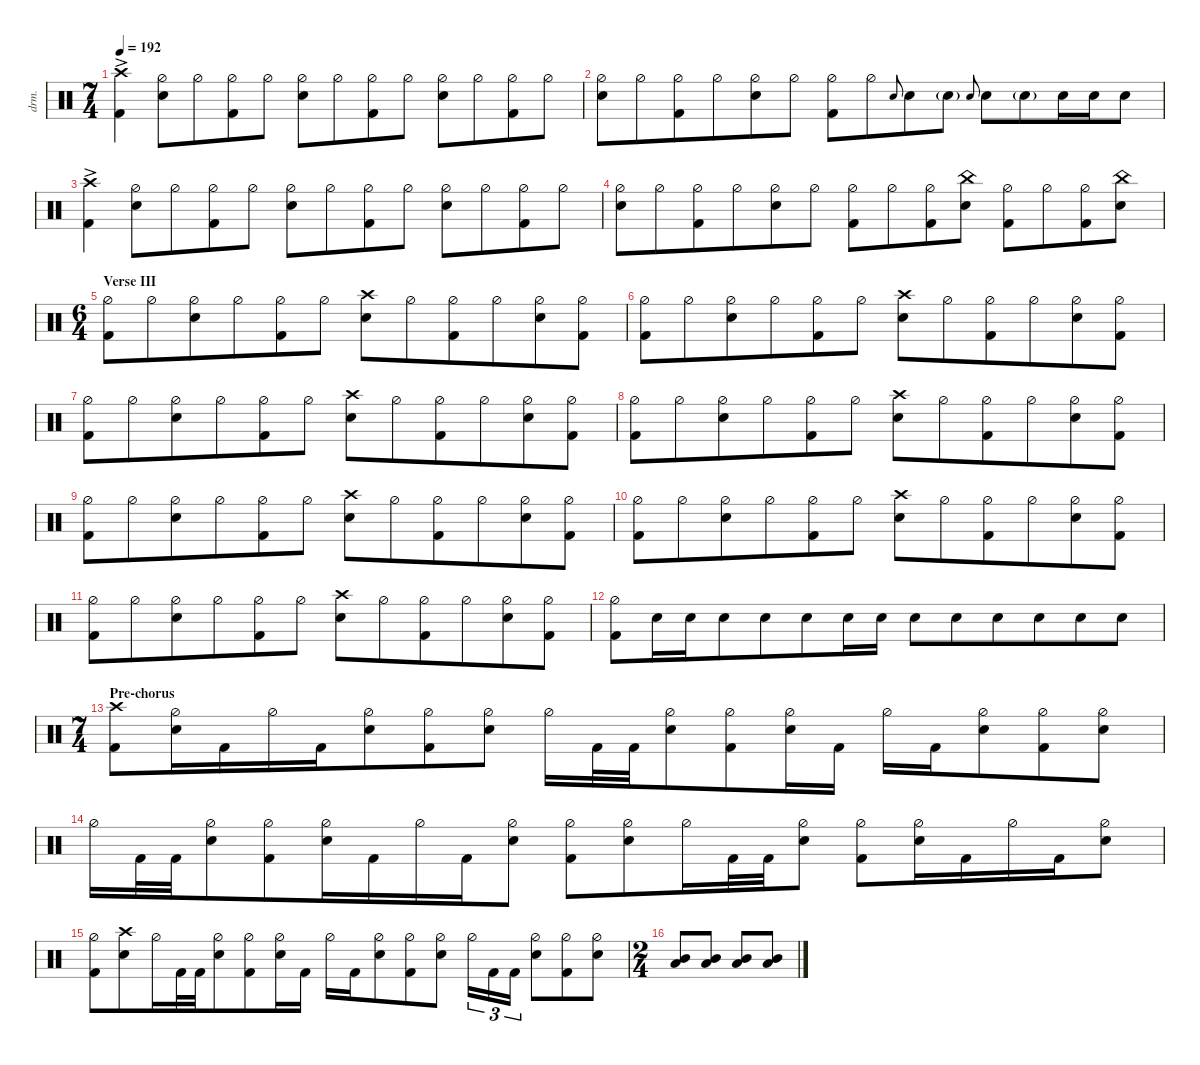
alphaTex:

\defaultSystemsLayout 4
\hideDynamics
\bracketExtendMode nobrackets
\otherSystemsTrackNameOrientation horizontal
\track ("Drumkit" "drm.") {defaultSystemsLayout 4 multiBarRest instrument percussion}
\staff
\articulation defaults
\ts (7 4)
\beaming (8 6 4 4)
\tempo 192
\clef neutral
\ks c
("Kick (hit) 2" "Crash high (hit)"{ac}).4{dy f beam Down} ("Hi-Hat (half)" "Snare (hit) 2").8{beam Down} "Hi-Hat (half)".8{beam Down} ("Kick (hit) 2" "Hi-Hat (half)").8{beam Down} "Hi-Hat (half)".8{beam Down} ("Hi-Hat (half)" "Snare (hit) 2").8{beam Down} "Hi-Hat (half)".8{beam Down} ("Kick (hit) 2" "Hi-Hat (half)").8{beam Down} "Hi-Hat (half)".8{beam Down} ("Hi-Hat (half)" "Snare (hit) 2").8{beam Down} "Hi-Hat (half)".8{beam Down} ("Kick (hit) 2" "Hi-Hat (half)").8{beam Down} "Hi-Hat (half)".8{beam Down} |
("Hi-Hat (half)" "Snare (hit) 2").8{beam Down} "Hi-Hat (half)".8{beam Down} ("Kick (hit) 2" "Hi-Hat (half)").8{beam Down} "Hi-Hat (half)".8{beam Down} ("Hi-Hat (half)" "Snare (hit) 2").8{beam Down} "Hi-Hat (half)".8{beam Down} ("Kick (hit) 2" "Hi-Hat (half)").8{beam Down} "Hi-Hat (half)".8{beam Down} "Snare (hit) 2".8{gr onbeat beam Up} "Snare (hit) 2".8{beam Down} "Snare (hit) 2"{g}.8{dy mf beam Down} "Snare (hit) 2".8{gr onbeat dy f beam Up} "Snare (hit) 2".8{beam Down} "Snare (hit) 2"{g}.8{dy mf beam Down} "Snare (hit) 2".16{dy f beam Down} "Snare (hit) 2".16{beam Down} "Snare (hit) 2".8{beam Down} |
("Kick (hit) 2" "Crash high (hit)"{ac}).4{beam Down} ("Hi-Hat (half)" "Snare (hit) 2").8{beam Down} "Hi-Hat (half)".8{beam Down} ("Kick (hit) 2" "Hi-Hat (half)").8{beam Down} "Hi-Hat (half)".8{beam Down} ("Hi-Hat (half)" "Snare (hit) 2").8{beam Down} "Hi-Hat (half)".8{beam Down} ("Kick (hit) 2" "Hi-Hat (half)").8{beam Down} "Hi-Hat (half)".8{beam Down} ("Hi-Hat (half)" "Snare (hit) 2").8{beam Down} "Hi-Hat (half)".8{beam Down} ("Kick (hit) 2" "Hi-Hat (half)").8{beam Down} "Hi-Hat (half)".8{beam Down} |
("Hi-Hat (half)" "Snare (hit) 2").8{beam Down} "Hi-Hat (half)".8{beam Down} ("Kick (hit) 2" "Hi-Hat (half)").8{beam Down} "Hi-Hat (half)".8{beam Down} ("Hi-Hat (half)" "Snare (hit) 2").8{beam Down} "Hi-Hat (half)".8{beam Down} ("Kick (hit) 2" "Hi-Hat (half)").8{beam Down} "Hi-Hat (half)".8{beam Down} ("Kick (hit) 2" "Hi-Hat (half)").8{beam Down} ("Snare (hit) 2" "China (hit)").8{beam Down} ("Kick (hit) 2" "Hi-Hat (half)").8{beam Down} "Hi-Hat (half)".8{beam Down} ("Kick (hit) 2" "Hi-Hat (half)").8{beam Down} ("Snare (hit) 2" "China (hit)").8{beam Down} |
\ts (6 4)
\beaming (8 6 6)
\section ("" "Verse III")
("Kick (hit) 2" "Hi-Hat (half)").8{beam Down} "Hi-Hat (half)".8{beam Down} ("Hi-Hat (half)" "Snare (hit) 2").8{beam Down} "Hi-Hat (half)".8{beam Down} ("Kick (hit) 2" "Hi-Hat (half)").8{beam Down} "Hi-Hat (half)".8{beam Down} ("Snare (hit) 2" "Crash high (hit)").8{beam Down} "Hi-Hat (half)".8{beam Down} ("Kick (hit) 2" "Hi-Hat (half)").8{beam Down} "Hi-Hat (half)".8{beam Down} ("Hi-Hat (half)" "Snare (hit) 2").8{beam Down} ("Hi-Hat (half)" "Kick (hit) 2").8{beam Down} |
("Kick (hit) 2" "Hi-Hat (half)").8{beam Down} "Hi-Hat (half)".8{beam Down} ("Hi-Hat (half)" "Snare (hit) 2").8{beam Down} "Hi-Hat (half)".8{beam Down} ("Kick (hit) 2" "Hi-Hat (half)").8{beam Down} "Hi-Hat (half)".8{beam Down} ("Snare (hit) 2" "Crash high (hit)").8{beam Down} "Hi-Hat (half)".8{beam Down} ("Kick (hit) 2" "Hi-Hat (half)").8{beam Down} "Hi-Hat (half)".8{beam Down} ("Hi-Hat (half)" "Snare (hit) 2").8{beam Down} ("Hi-Hat (half)" "Kick (hit) 2").8{beam Down} |
("Kick (hit) 2" "Hi-Hat (half)").8{beam Down} "Hi-Hat (half)".8{beam Down} ("Hi-Hat (half)" "Snare (hit) 2").8{beam Down} "Hi-Hat (half)".8{beam Down} ("Kick (hit) 2" "Hi-Hat (half)").8{beam Down} "Hi-Hat (half)".8{beam Down} ("Snare (hit) 2" "Crash high (hit)").8{beam Down} "Hi-Hat (half)".8{beam Down} ("Kick (hit) 2" "Hi-Hat (half)").8{beam Down} "Hi-Hat (half)".8{beam Down} ("Hi-Hat (half)" "Snare (hit) 2").8{beam Down} ("Hi-Hat (half)" "Kick (hit) 2").8{beam Down} |
("Kick (hit) 2" "Hi-Hat (half)").8{beam Down} "Hi-Hat (half)".8{beam Down} ("Hi-Hat (half)" "Snare (hit) 2").8{beam Down} "Hi-Hat (half)".8{beam Down} ("Kick (hit) 2" "Hi-Hat (half)").8{beam Down} "Hi-Hat (half)".8{beam Down} ("Snare (hit) 2" "Crash high (hit)").8{beam Down} "Hi-Hat (half)".8{beam Down} ("Kick (hit) 2" "Hi-Hat (half)").8{beam Down} "Hi-Hat (half)".8{beam Down} ("Hi-Hat (half)" "Snare (hit) 2").8{beam Down} ("Hi-Hat (half)" "Kick (hit) 2").8{beam Down} |
("Kick (hit) 2" "Hi-Hat (half)").8{beam Down} "Hi-Hat (half)".8{beam Down} ("Snare (hit) 2" "Hi-Hat (half)").8{beam Down} "Hi-Hat (half)".8{beam Down} ("Kick (hit) 2" "Hi-Hat (half)").8{beam Down} "Hi-Hat (half)".8{beam Down} ("Snare (hit) 2" "Crash high (hit)").8{beam Down} "Hi-Hat (half)".8{beam Down} ("Kick (hit) 2" "Hi-Hat (half)").8{beam Down} "Hi-Hat (half)".8{beam Down} ("Hi-Hat (half)" "Snare (hit) 2").8{beam Down} ("Hi-Hat (half)" "Kick (hit) 2").8{beam Down} |
("Kick (hit) 2" "Hi-Hat (half)").8{beam Down} "Hi-Hat (half)".8{beam Down} ("Snare (hit) 2" "Hi-Hat (half)").8{beam Down} "Hi-Hat (half)".8{beam Down} ("Kick (hit) 2" "Hi-Hat (half)").8{beam Down} "Hi-Hat (half)".8{beam Down} ("Snare (hit) 2" "Crash high (hit)").8{beam Down} "Hi-Hat (half)".8{beam Down} ("Kick (hit) 2" "Hi-Hat (half)").8{beam Down} "Hi-Hat (half)".8{beam Down} ("Hi-Hat (half)" "Snare (hit) 2").8{beam Down} ("Hi-Hat (half)" "Kick (hit) 2").8{beam Down} |
("Kick (hit) 2" "Hi-Hat (half)").8{beam Down} "Hi-Hat (half)".8{beam Down} ("Snare (hit) 2" "Hi-Hat (half)").8{beam Down} "Hi-Hat (half)".8{beam Down} ("Kick (hit) 2" "Hi-Hat (half)").8{beam Down} "Hi-Hat (half)".8{beam Down} ("Snare (hit) 2" "Crash high (hit)").8{beam Down} "Hi-Hat (half)".8{beam Down} ("Kick (hit) 2" "Hi-Hat (half)").8{beam Down} "Hi-Hat (half)".8{beam Down} ("Hi-Hat (half)" "Snare (hit) 2").8{beam Down} ("Hi-Hat (half)" "Kick (hit) 2").8{beam Down} |
("Kick (hit) 2" "Hi-Hat (half)").8{beam Down} "Snare (hit) 2".16{dy mf beam Down} "Snare (hit) 2".16{dy f beam Down} "Snare (hit) 2".8{beam Down} "Snare (hit) 2".8{beam Down} "Snare (hit) 2".8{beam Down} "Snare (hit) 2".16{dy mf beam Down} "Snare (hit) 2".16{dy f beam Down} "Snare (hit) 2".8{beam Down} "Snare (hit) 2".8{beam Down} "Snare (hit) 2".8{beam Down} "Snare (hit) 2".8{beam Down} "Snare (hit) 2".8{beam Down} "Snare (hit) 2".8{beam Down} |
\ts (7 4)
\beaming (8 6 4 4)
\section ("" "Pre-chorus")
("Crash high (hit)" "Kick (hit) 2").8{beam Down} ("Hi-Hat (half)" "Snare (hit) 2").16{beam Down} "Kick (hit) 2".16{beam Down} "Hi-Hat (half)".16{beam Down} "Kick (hit) 2".16{beam Down} ("Hi-Hat (half)" "Snare (hit) 2").8{beam Down} ("Hi-Hat (half)" "Kick (hit) 2").8{beam Down} ("Hi-Hat (half)" "Snare (hit) 2").8{beam Down} "Hi-Hat (half)".16{beam Down} "Kick (hit) 2".32{beam Down} "Kick (hit) 2".32{beam Down} ("Hi-Hat (half)" "Snare (hit) 2").8{beam Down} ("Kick (hit) 2" "Hi-Hat (half)").8{beam Down} ("Hi-Hat (half)" "Snare (hit) 2").16{beam Down} "Kick (hit) 2".16{beam Down} "Hi-Hat (half)".16{beam Down} "Kick (hit) 2".16{beam Down} ("Hi-Hat (half)" "Snare (hit) 2").8{beam Down} ("Hi-Hat (half)" "Kick (hit) 2").8{beam Down} ("Hi-Hat (half)" "Snare (hit) 2").8{beam Down} |
"Hi-Hat (half)".16{beam Down} "Kick (hit) 2".32{beam Down} "Kick (hit) 2".32{beam Down} ("Hi-Hat (half)" "Snare (hit) 2").8{beam Down} ("Hi-Hat (half)" "Kick (hit) 2").8{beam Down} ("Hi-Hat (half)" "Snare (hit) 2").16{beam Down} "Kick (hit) 2".16{beam Down} "Hi-Hat (half)".16{beam Down} "Kick (hit) 2".16{beam Down} ("Hi-Hat (half)" "Snare (hit) 2").8{beam Down} ("Kick (hit) 2" "Hi-Hat (half)").8{beam Down} ("Hi-Hat (half)" "Snare (hit) 2").8{beam Down} "Hi-Hat (half)".16{beam Down} "Kick (hit) 2".32{beam Down} "Kick (hit) 2".32{beam Down} ("Hi-Hat (half)" "Snare (hit) 2").8{beam Down} ("Hi-Hat (half)" "Kick (hit) 2").8{beam Down} ("Hi-Hat (half)" "Snare (hit) 2").16{beam Down} "Kick (hit) 2".16{beam Down} "Hi-Hat (half)".16{beam Down} "Kick (hit) 2".16{beam Down} ("Hi-Hat (half)" "Snare (hit) 2").8{beam Down} |
("Kick (hit) 2" "Hi-Hat (half)").8{beam Down} ("Snare (hit) 2" "Crash high (hit)").8{beam Down} "Hi-Hat (half)".16{beam Down} "Kick (hit) 2".32{beam Down} "Kick (hit) 2".32{beam Down} ("Hi-Hat (half)" "Snare (hit) 2").8{beam Down} ("Hi-Hat (half)" "Kick (hit) 2").8{beam Down} ("Hi-Hat (half)" "Snare (hit) 2").16{beam Down} "Kick (hit) 2".16{beam Down} "Hi-Hat (half)".16{beam Down} "Kick (hit) 2".16{beam Down} ("Hi-Hat (half)" "Snare (hit) 2").8{beam Down} ("Kick (hit) 2" "Hi-Hat (half)").8{beam Down} ("Hi-Hat (half)" "Snare (hit) 2").8{beam Down} "Hi-Hat (half)".16{tu (3 2) beam Down} "Kick (hit) 2".16{tu (3 2) beam Down} "Kick (hit) 2".16{tu (3 2) beam Down} ("Hi-Hat (half)" "Snare (hit) 2").8{beam Down} ("Hi-Hat (half)" "Kick (hit) 2").8{beam Down} ("Hi-Hat (half)" "Snare (hit) 2").8{beam Down} |
\ts (2 4)
\beaming (8 2 2)
("Mid Tom (hit)" "Low Tom (hit)").8{dy fff beam Up} ("Mid Tom (hit)" "Low Tom (hit)").8{beam Up} ("Mid Tom (hit)" "Low Tom (hit)").8{beam Up} ("Mid Tom (hit)" "Low Tom (hit)").8{beam Up}
